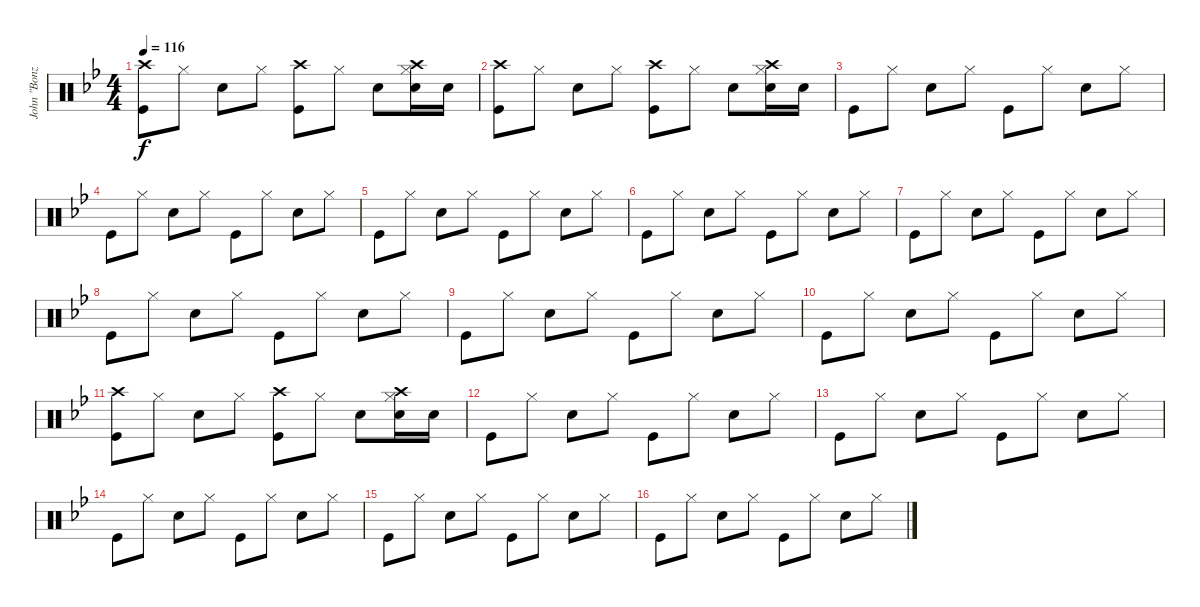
\track ("John \"Bonzo\" Bonham" "John \"Bonz") {instrument percussion}
\staff {score}
\articulation defaults
\ts (4 4)
\tempo 116
\clef neutral
\ks bb
("Kick (hit)" "Crash high (hit)").8{dy f} "Hi-Hat (closed)".8 "Snare (hit) 2".8 "Hi-Hat (closed)".8 ("Kick (hit)" "Crash high (hit)").8 "Hi-Hat (closed)".8 "Snare (hit) 2".8 ("Snare (hit) 2" "Hi-Hat (closed)" "Crash high (hit)").16 "Snare (hit) 2".16 |
("Kick (hit)" "Crash high (hit)").8 "Hi-Hat (closed)".8 "Snare (hit) 2".8 "Hi-Hat (closed)".8 ("Kick (hit)" "Crash high (hit)").8 "Hi-Hat (closed)".8 "Snare (hit) 2".8 ("Snare (hit) 2" "Hi-Hat (closed)" "Crash high (hit)").16 "Snare (hit) 2".16 |
"Kick (hit)".8 "Hi-Hat (closed)".8 "Snare (hit) 2".8 "Hi-Hat (closed)".8 "Kick (hit)".8 "Hi-Hat (closed)".8 "Snare (hit) 2".8 "Hi-Hat (closed)".8 |
"Kick (hit)".8 "Hi-Hat (closed)".8 "Snare (hit) 2".8 "Hi-Hat (closed)".8 "Kick (hit)".8 "Hi-Hat (closed)".8 "Snare (hit) 2".8 "Hi-Hat (closed)".8 |
"Kick (hit)".8 "Hi-Hat (closed)".8 "Snare (hit) 2".8 "Hi-Hat (closed)".8 "Kick (hit)".8 "Hi-Hat (closed)".8 "Snare (hit) 2".8 "Hi-Hat (closed)".8 |
"Kick (hit)".8 "Hi-Hat (closed)".8 "Snare (hit) 2".8 "Hi-Hat (closed)".8 "Kick (hit)".8 "Hi-Hat (closed)".8 "Snare (hit) 2".8 "Hi-Hat (closed)".8 |
"Kick (hit)".8 "Hi-Hat (closed)".8 "Snare (hit) 2".8 "Hi-Hat (closed)".8 "Kick (hit)".8 "Hi-Hat (closed)".8 "Snare (hit) 2".8 "Hi-Hat (closed)".8 |
"Kick (hit)".8 "Hi-Hat (closed)".8 "Snare (hit) 2".8 "Hi-Hat (closed)".8 "Kick (hit)".8 "Hi-Hat (closed)".8 "Snare (hit) 2".8 "Hi-Hat (closed)".8 |
"Kick (hit)".8 "Hi-Hat (closed)".8 "Snare (hit) 2".8 "Hi-Hat (closed)".8 "Kick (hit)".8 "Hi-Hat (closed)".8 "Snare (hit) 2".8 "Hi-Hat (closed)".8 |
"Kick (hit)".8 "Hi-Hat (closed)".8 "Snare (hit) 2".8 "Hi-Hat (closed)".8 "Kick (hit)".8 "Hi-Hat (closed)".8 "Snare (hit) 2".8 "Hi-Hat (closed)".8 |
("Kick (hit)" "Crash high (hit)").8 "Hi-Hat (closed)".8 "Snare (hit) 2".8 "Hi-Hat (closed)".8 ("Kick (hit)" "Crash high (hit)").8 "Hi-Hat (closed)".8 "Snare (hit) 2".8 ("Snare (hit) 2" "Hi-Hat (closed)" "Crash high (hit)").16 "Snare (hit) 2".16 |
"Kick (hit)".8 "Hi-Hat (closed)".8 "Snare (hit) 2".8 "Hi-Hat (closed)".8 "Kick (hit)".8 "Hi-Hat (closed)".8 "Snare (hit) 2".8 "Hi-Hat (closed)".8 |
"Kick (hit)".8 "Hi-Hat (closed)".8 "Snare (hit) 2".8 "Hi-Hat (closed)".8 "Kick (hit)".8 "Hi-Hat (closed)".8 "Snare (hit) 2".8 "Hi-Hat (closed)".8 |
"Kick (hit)".8 "Hi-Hat (closed)".8 "Snare (hit) 2".8 "Hi-Hat (closed)".8 "Kick (hit)".8 "Hi-Hat (closed)".8 "Snare (hit) 2".8 "Hi-Hat (closed)".8 |
"Kick (hit)".8 "Hi-Hat (closed)".8 "Snare (hit) 2".8 "Hi-Hat (closed)".8 "Kick (hit)".8 "Hi-Hat (closed)".8 "Snare (hit) 2".8 "Hi-Hat (closed)".8 |
"Kick (hit)".8 "Hi-Hat (closed)".8 "Snare (hit) 2".8 "Hi-Hat (closed)".8 "Kick (hit)".8 "Hi-Hat (closed)".8 "Snare (hit) 2".8 "Hi-Hat (closed)".8
